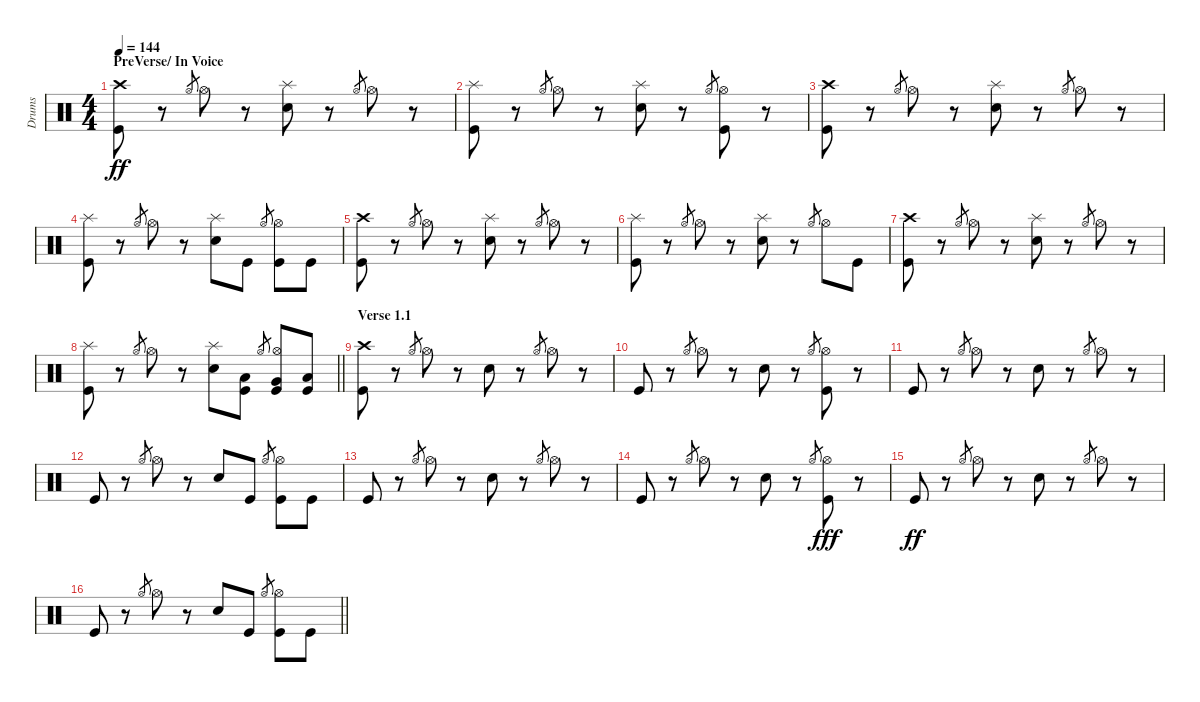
\track ("Drums" "Drums") {instrument percussion}
\staff {score}
\articulation defaults
\ts (4 4)
\section ("" "PreVerse/ In Voice")
\tempo 144
\clef neutral
\ks c
("Crash high (hit)" "Kick (hit)").8{dy ff} r.8 "Hi-Hat (open)".8{gr} "Hi-Hat (open)".8 r.8 ("Splash (hit)" "Snare (hit) 2").8 r.8 "Hi-Hat (open)".8{gr} "Hi-Hat (open)".8 r.8 |
("Splash (hit)" "Kick (hit)").8 r.8 "Hi-Hat (open)".8{gr} "Hi-Hat (open)".8 r.8 ("Splash (hit)" "Snare (hit) 2").8 r.8 "Hi-Hat (open)".8{gr} ("Hi-Hat (open)" "Kick (hit)").8 r.8 |
("Crash high (hit)" "Kick (hit)").8 r.8 "Hi-Hat (open)".8{gr} "Hi-Hat (open)".8 r.8 ("Splash (hit)" "Snare (hit) 2").8 r.8 "Hi-Hat (open)".8{gr} "Hi-Hat (open)".8 r.8 |
("Splash (hit)" "Kick (hit)").8 r.8 "Hi-Hat (open)".8{gr} "Hi-Hat (open)".8 r.8 ("Splash (hit)" "Snare (hit) 2").8 "Kick (hit)".8 "Hi-Hat (open)".8{gr} ("Hi-Hat (open)" "Kick (hit)").8 "Kick (hit)".8 |
("Crash high (hit)" "Kick (hit)").8 r.8 "Hi-Hat (open)".8{gr} "Hi-Hat (open)".8 r.8 ("Splash (hit)" "Snare (hit) 2").8 r.8 "Hi-Hat (open)".8{gr} "Hi-Hat (open)".8 r.8 |
("Splash (hit)" "Kick (hit)").8 r.8 "Hi-Hat (open)".8{gr} "Hi-Hat (open)".8 r.8 ("Splash (hit)" "Snare (hit) 2").8 r.8 "Hi-Hat (open)".8{gr} "Hi-Hat (open)".8 "Kick (hit)".8 |
("Crash high (hit)" "Kick (hit)").8 r.8 "Hi-Hat (open)".8{gr} "Hi-Hat (open)".8 r.8 ("Splash (hit)" "Snare (hit) 2").8 r.8 "Hi-Hat (open)".8{gr} "Hi-Hat (open)".8 r.8 |
\barLineRight lightlight
("Splash (hit)" "Kick (hit)").8 r.8 "Hi-Hat (open)".8{gr} "Hi-Hat (open)".8 r.8 ("Splash (hit)" "Snare (hit) 2").8 ("Low Tom (hit)" "Kick (hit)").8 "Hi-Hat (open)".8{gr} ("Hi-Hat (open)" "Very Low Tom (hit)" "Kick (hit)").8 ("Low Floor Tom (hit)" "Kick (hit)").8 |
\section ("" "Verse 1.1")
("Crash high (hit)" "Kick (hit)").8 r.8 "Hi-Hat (open)".8{gr} "Hi-Hat (open)".8 r.8 "Snare (hit) 2".8 r.8 "Hi-Hat (open)".8{gr} "Hi-Hat (open)".8 r.8 |
"Kick (hit)".8 r.8 "Hi-Hat (open)".8{gr} "Hi-Hat (open)".8 r.8 "Snare (hit) 2".8 r.8 "Hi-Hat (open)".8{gr} ("Hi-Hat (open)" "Kick (hit)").8 r.8 |
"Kick (hit)".8 r.8 "Hi-Hat (open)".8{gr} "Hi-Hat (open)".8 r.8 "Snare (hit) 2".8 r.8 "Hi-Hat (open)".8{gr} "Hi-Hat (open)".8 r.8 |
"Kick (hit)".8 r.8 "Hi-Hat (open)".8{gr} "Hi-Hat (open)".8 r.8 "Snare (hit) 2".8 "Kick (hit)".8 "Hi-Hat (open)".8{gr} ("Hi-Hat (open)" "Kick (hit)").8 "Kick (hit)".8 |
"Kick (hit)".8 r.8 "Hi-Hat (open)".8{gr} "Hi-Hat (open)".8 r.8 "Snare (hit) 2".8 r.8 "Hi-Hat (open)".8{gr} "Hi-Hat (open)".8 r.8 |
"Kick (hit)".8 r.8 "Hi-Hat (open)".8{gr} "Hi-Hat (open)".8 r.8 "Snare (hit) 2".8 r.8 "Hi-Hat (open)".8{gr} ("Hi-Hat (open)" "Kick (hit)").8{dy fff} r.8 |
"Kick (hit)".8{dy ff} r.8 "Hi-Hat (open)".8{gr} "Hi-Hat (open)".8 r.8 "Snare (hit) 2".8 r.8 "Hi-Hat (open)".8{gr} "Hi-Hat (open)".8 r.8 |
\barLineRight lightlight "Kick (hit)".8
r.8 "Hi-Hat (open)".8{gr} "Hi-Hat (open)".8 r.8 "Snare (hit) 2".8 "Kick (hit)".8 "Hi-Hat (open)".8{gr} ("Hi-Hat (open)" "Kick (hit)").8 "Kick (hit)".8
